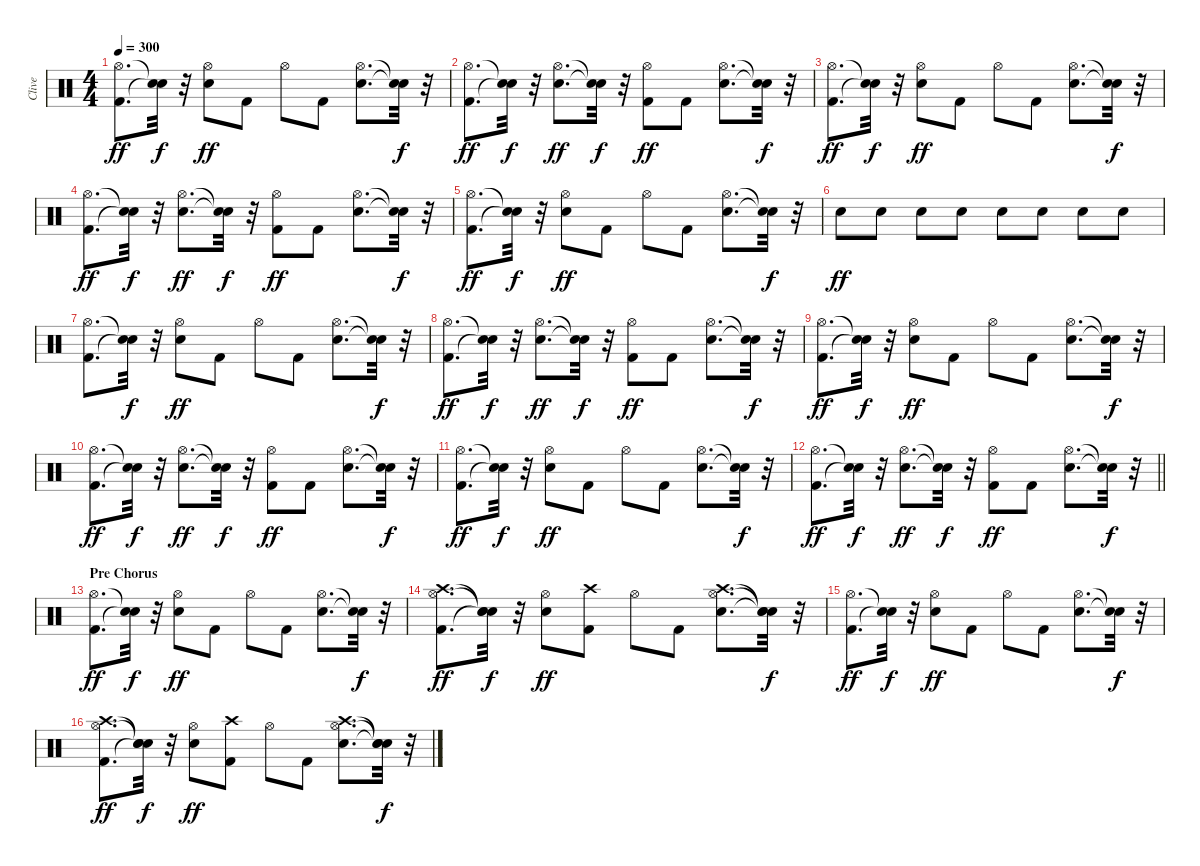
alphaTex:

\track ("Clive" "Clive") {instrument percussion}
\staff {score}
\articulation defaults
\ts (4 4)
\tempo 300
\clef neutral
\ks c
("Kick (hit) 2" "Hi-Hat (open)").8{d dy ff} ("Snare (hit)"{t} "Snare (hit)"{t}).32{dy f} r.32 ("Snare (hit) 2" "Hi-Hat (open)").8{dy ff} "Kick (hit) 2".8 "Hi-Hat (open)".8 "Kick (hit) 2".8 ("Snare (hit) 2" "Hi-Hat (open)").8{d} ("Snare (hit)"{t} "Snare (hit)"{t}).32{dy f} r.32 |
("Kick (hit) 2" "Hi-Hat (open)").8{d dy ff} ("Snare (hit)"{t} "Snare (hit)"{t}).32{dy f} r.32 ("Snare (hit) 2" "Hi-Hat (open)").8{d dy ff} ("Snare (hit)"{t} "Snare (hit)"{t}).32{dy f} r.32 ("Kick (hit) 2" "Hi-Hat (open)").8{dy ff} "Kick (hit) 2".8 ("Snare (hit) 2" "Hi-Hat (open)").8{d} ("Snare (hit)"{t} "Snare (hit)"{t}).32{dy f} r.32 |
("Kick (hit) 2" "Hi-Hat (open)").8{d dy ff} ("Snare (hit)"{t} "Snare (hit)"{t}).32{dy f} r.32 ("Snare (hit) 2" "Hi-Hat (open)").8{dy ff} "Kick (hit) 2".8 "Hi-Hat (open)".8 "Kick (hit) 2".8 ("Snare (hit) 2" "Hi-Hat (open)").8{d} ("Snare (hit)"{t} "Snare (hit)"{t}).32{dy f} r.32 |
("Kick (hit) 2" "Hi-Hat (open)").8{d dy ff} ("Snare (hit)"{t} "Snare (hit)"{t}).32{dy f} r.32 ("Snare (hit) 2" "Hi-Hat (open)").8{d dy ff} ("Snare (hit)"{t} "Snare (hit)"{t}).32{dy f} r.32 ("Kick (hit) 2" "Hi-Hat (open)").8{dy ff} "Kick (hit) 2".8 ("Snare (hit) 2" "Hi-Hat (open)").8{d} ("Snare (hit)"{t} "Snare (hit)"{t}).32{dy f} r.32 |
("Kick (hit) 2" "Hi-Hat (open)").8{d dy ff} ("Snare (hit)"{t} "Snare (hit)"{t}).32{dy f} r.32 ("Snare (hit) 2" "Hi-Hat (open)").8{dy ff} "Kick (hit) 2".8 "Hi-Hat (open)".8 "Kick (hit) 2".8 ("Snare (hit) 2" "Hi-Hat (open)").8{d} ("Snare (hit)"{t} "Snare (hit)"{t}).32{dy f} r.32 |
"Snare (hit) 2".8{dy ff} "Snare (hit) 2".8 "Snare (hit) 2".8 "Snare (hit) 2".8 "Snare (hit) 2".8 "Snare (hit) 2".8 "Snare (hit) 2".8 "Snare (hit) 2".8 |
("Kick (hit) 2" "Hi-Hat (open)").8{d} ("Snare (hit)"{t} "Snare (hit)"{t}).32{dy f} r.32 ("Snare (hit) 2" "Hi-Hat (open)").8{dy ff} "Kick (hit) 2".8 "Hi-Hat (open)".8 "Kick (hit) 2".8 ("Snare (hit) 2" "Hi-Hat (open)").8{d} ("Snare (hit)"{t} "Snare (hit)"{t}).32{dy f} r.32 |
("Kick (hit) 2" "Hi-Hat (open)").8{d dy ff} ("Snare (hit)"{t} "Snare (hit)"{t}).32{dy f} r.32 ("Snare (hit) 2" "Hi-Hat (open)").8{d dy ff} ("Snare (hit)"{t} "Snare (hit)"{t}).32{dy f} r.32 ("Kick (hit) 2" "Hi-Hat (open)").8{dy ff} "Kick (hit) 2".8 ("Snare (hit) 2" "Hi-Hat (open)").8{d} ("Snare (hit)"{t} "Snare (hit)"{t}).32{dy f} r.32 |
("Kick (hit) 2" "Hi-Hat (open)").8{d dy ff} ("Snare (hit)"{t} "Snare (hit)"{t}).32{dy f} r.32 ("Snare (hit) 2" "Hi-Hat (open)").8{dy ff} "Kick (hit) 2".8 "Hi-Hat (open)".8 "Kick (hit) 2".8 ("Snare (hit) 2" "Hi-Hat (open)").8{d} ("Snare (hit)"{t} "Snare (hit)"{t}).32{dy f} r.32 |
("Kick (hit) 2" "Hi-Hat (open)").8{d dy ff} ("Snare (hit)"{t} "Snare (hit)"{t}).32{dy f} r.32 ("Snare (hit) 2" "Hi-Hat (open)").8{d dy ff} ("Snare (hit)"{t} "Snare (hit)"{t}).32{dy f} r.32 ("Kick (hit) 2" "Hi-Hat (open)").8{dy ff} "Kick (hit) 2".8 ("Snare (hit) 2" "Hi-Hat (open)").8{d} ("Snare (hit)"{t} "Snare (hit)"{t}).32{dy f} r.32 |
("Kick (hit) 2" "Hi-Hat (open)").8{d dy ff} ("Snare (hit)"{t} "Snare (hit)"{t}).32{dy f} r.32 ("Snare (hit) 2" "Hi-Hat (open)").8{dy ff} "Kick (hit) 2".8 "Hi-Hat (open)".8 "Kick (hit) 2".8 ("Snare (hit) 2" "Hi-Hat (open)").8{d} ("Snare (hit)"{t} "Snare (hit)"{t}).32{dy f} r.32 |
\barLineRight lightlight
("Kick (hit) 2" "Hi-Hat (open)").8{d dy ff} ("Snare (hit)"{t} "Snare (hit)"{t}).32{dy f} r.32 ("Snare (hit) 2" "Hi-Hat (open)").8{d dy ff} ("Snare (hit)"{t} "Snare (hit)"{t}).32{dy f} r.32 ("Kick (hit) 2" "Hi-Hat (open)").8{dy ff} "Kick (hit) 2".8 ("Snare (hit) 2" "Hi-Hat (open)").8{d} ("Snare (hit)"{t} "Snare (hit)"{t}).32{dy f} r.32 |
\section ("" "Pre Chorus")
("Kick (hit) 2" "Hi-Hat (open)").8{d dy ff} ("Snare (hit)"{t} "Snare (hit)"{t}).32{dy f} r.32 ("Snare (hit) 2" "Hi-Hat (open)").8{dy ff} "Kick (hit) 2".8 "Hi-Hat (open)".8 "Kick (hit) 2".8 ("Snare (hit) 2" "Hi-Hat (open)").8{d} ("Snare (hit)"{t} "Snare (hit)"{t}).32{dy f} r.32 |
("Kick (hit) 2" "Hi-Hat (open)" "Crash high (hit)").8{d dy ff} ("Snare (hit)"{t} "Snare (hit)"{t} "Snare (hit)"{t}).32{dy f} r.32 ("Snare (hit) 2" "Hi-Hat (open)").8{dy ff} ("Kick (hit) 2" "Crash high (hit)").8 "Hi-Hat (open)".8 "Kick (hit) 2".8 ("Snare (hit) 2" "Hi-Hat (open)" "Crash high (hit)").8{d} ("Snare (hit)"{t} "Snare (hit)"{t} "Snare (hit)"{t}).32{dy f} r.32 |
("Kick (hit) 2" "Hi-Hat (open)").8{d dy ff} ("Snare (hit)"{t} "Snare (hit)"{t}).32{dy f} r.32 ("Snare (hit) 2" "Hi-Hat (open)").8{dy ff} "Kick (hit) 2".8 "Hi-Hat (open)".8 "Kick (hit) 2".8 ("Snare (hit) 2" "Hi-Hat (open)").8{d} ("Snare (hit)"{t} "Snare (hit)"{t}).32{dy f} r.32 |
("Kick (hit) 2" "Hi-Hat (open)" "Crash high (hit)").8{d dy ff} ("Snare (hit)"{t} "Snare (hit)"{t} "Snare (hit)"{t}).32{dy f} r.32 ("Snare (hit) 2" "Hi-Hat (open)").8{dy ff} ("Kick (hit) 2" "Crash high (hit)").8 "Hi-Hat (open)".8 "Kick (hit) 2".8 ("Snare (hit) 2" "Hi-Hat (open)" "Crash high (hit)").8{d} ("Snare (hit)"{t} "Snare (hit)"{t} "Snare (hit)"{t}).32{dy f} r.32
